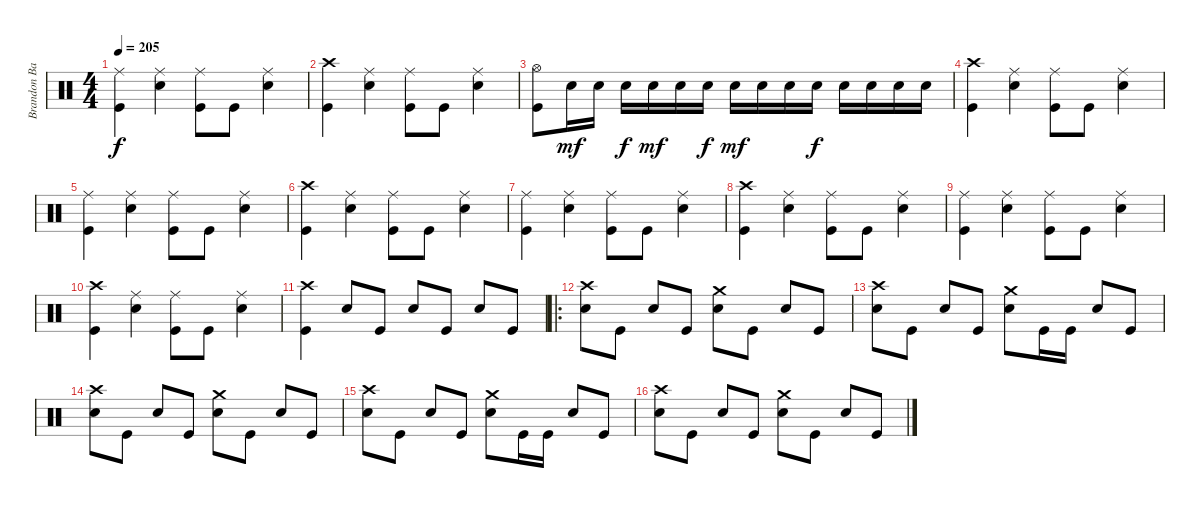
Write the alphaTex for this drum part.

\track ("Brandon Barnes" "Brandon Ba") {instrument percussion}
\staff {score}
\articulation defaults
\ts (4 4)
\tempo 205
\clef neutral
\ks c
("Kick (hit)" "Ride (middle)").4{dy f} ("Electric Snare (hit)" "Ride (middle)").4 ("Kick (hit)" "Ride (middle)").8 "Kick (hit)".8 ("Electric Snare (hit)" "Ride (middle)").4 |
("Kick (hit)" "Crash high (hit)").4 ("Electric Snare (hit)" "Ride (middle)").4 ("Kick (hit)" "Ride (middle)").8 "Kick (hit)".8 ("Electric Snare (hit)" "Ride (middle)").4 |
("Kick (hit)" "Hi-Hat (open)").8 "Electric Snare (hit)".16{dy mf} "Electric Snare (hit)".16 "Electric Snare (hit)".16{dy f} "Electric Snare (hit)".16{dy mf} "Electric Snare (hit)".16 "Electric Snare (hit)".16{dy f} "Electric Snare (hit)".16{dy mf} "Electric Snare (hit)".16 "Electric Snare (hit)".16 "Electric Snare (hit)".16{dy f} "Electric Snare (hit)".16 "Electric Snare (hit)".16 "Electric Snare (hit)".16 "Electric Snare (hit)".16 |
("Kick (hit)" "Crash high (hit)").4 ("Electric Snare (hit)" "Ride (middle)").4 ("Kick (hit)" "Ride (middle)").8 "Kick (hit)".8 ("Electric Snare (hit)" "Ride (middle)").4 |
("Kick (hit)" "Ride (middle)").4 ("Electric Snare (hit)" "Ride (middle)").4 ("Kick (hit)" "Ride (middle)").8 "Kick (hit)".8 ("Electric Snare (hit)" "Ride (middle)").4 |
("Kick (hit)" "Crash high (hit)").4 ("Electric Snare (hit)" "Ride (middle)").4 ("Kick (hit)" "Ride (middle)").8 "Kick (hit)".8 ("Electric Snare (hit)" "Ride (middle)").4 |
("Kick (hit)" "Ride (middle)").4 ("Electric Snare (hit)" "Ride (middle)").4 ("Kick (hit)" "Ride (middle)").8 "Kick (hit)".8 ("Electric Snare (hit)" "Ride (middle)").4 |
("Kick (hit)" "Crash high (hit)").4 ("Electric Snare (hit)" "Ride (middle)").4 ("Kick (hit)" "Ride (middle)").8 "Kick (hit)".8 ("Electric Snare (hit)" "Ride (middle)").4 |
("Kick (hit)" "Ride (middle)").4 ("Electric Snare (hit)" "Ride (middle)").4 ("Kick (hit)" "Ride (middle)").8 "Kick (hit)".8 ("Electric Snare (hit)" "Ride (middle)").4 |
("Kick (hit)" "Crash high (hit)").4 ("Electric Snare (hit)" "Ride (middle)").4 ("Kick (hit)" "Ride (middle)").8 "Kick (hit)".8 ("Electric Snare (hit)" "Ride (middle)").4 |
("Kick (hit)" "Crash high (hit)").4 "Electric Snare (hit)".8 "Kick (hit)".8 "Electric Snare (hit)".8 "Kick (hit)".8 "Electric Snare (hit)".8 "Kick (hit)".8 |
\ro
("Electric Snare (hit)" "Crash high (hit)").8 "Kick (hit)".8 "Electric Snare (hit)".8 "Kick (hit)".8 ("Electric Snare (hit)" "Crash medium (hit)").8 "Kick (hit)".8 "Electric Snare (hit)".8 "Kick (hit)".8 |
("Electric Snare (hit)" "Crash high (hit)").8 "Kick (hit)".8 "Electric Snare (hit)".8 "Kick (hit)".8 ("Electric Snare (hit)" "Crash medium (hit)").8 "Kick (hit)".16 "Kick (hit)".16 "Electric Snare (hit)".8 "Kick (hit)".8 |
("Electric Snare (hit)" "Crash high (hit)").8 "Kick (hit)".8 "Electric Snare (hit)".8 "Kick (hit)".8 ("Electric Snare (hit)" "Crash medium (hit)").8 "Kick (hit)".8 "Electric Snare (hit)".8 "Kick (hit)".8 |
("Electric Snare (hit)" "Crash high (hit)").8 "Kick (hit)".8 "Electric Snare (hit)".8 "Kick (hit)".8 ("Electric Snare (hit)" "Crash medium (hit)").8 "Kick (hit)".16 "Kick (hit)".16 "Electric Snare (hit)".8 "Kick (hit)".8 |
("Electric Snare (hit)" "Crash high (hit)").8 "Kick (hit)".8 "Electric Snare (hit)".8 "Kick (hit)".8 ("Electric Snare (hit)" "Crash medium (hit)").8 "Kick (hit)".8 "Electric Snare (hit)".8 "Kick (hit)".8
